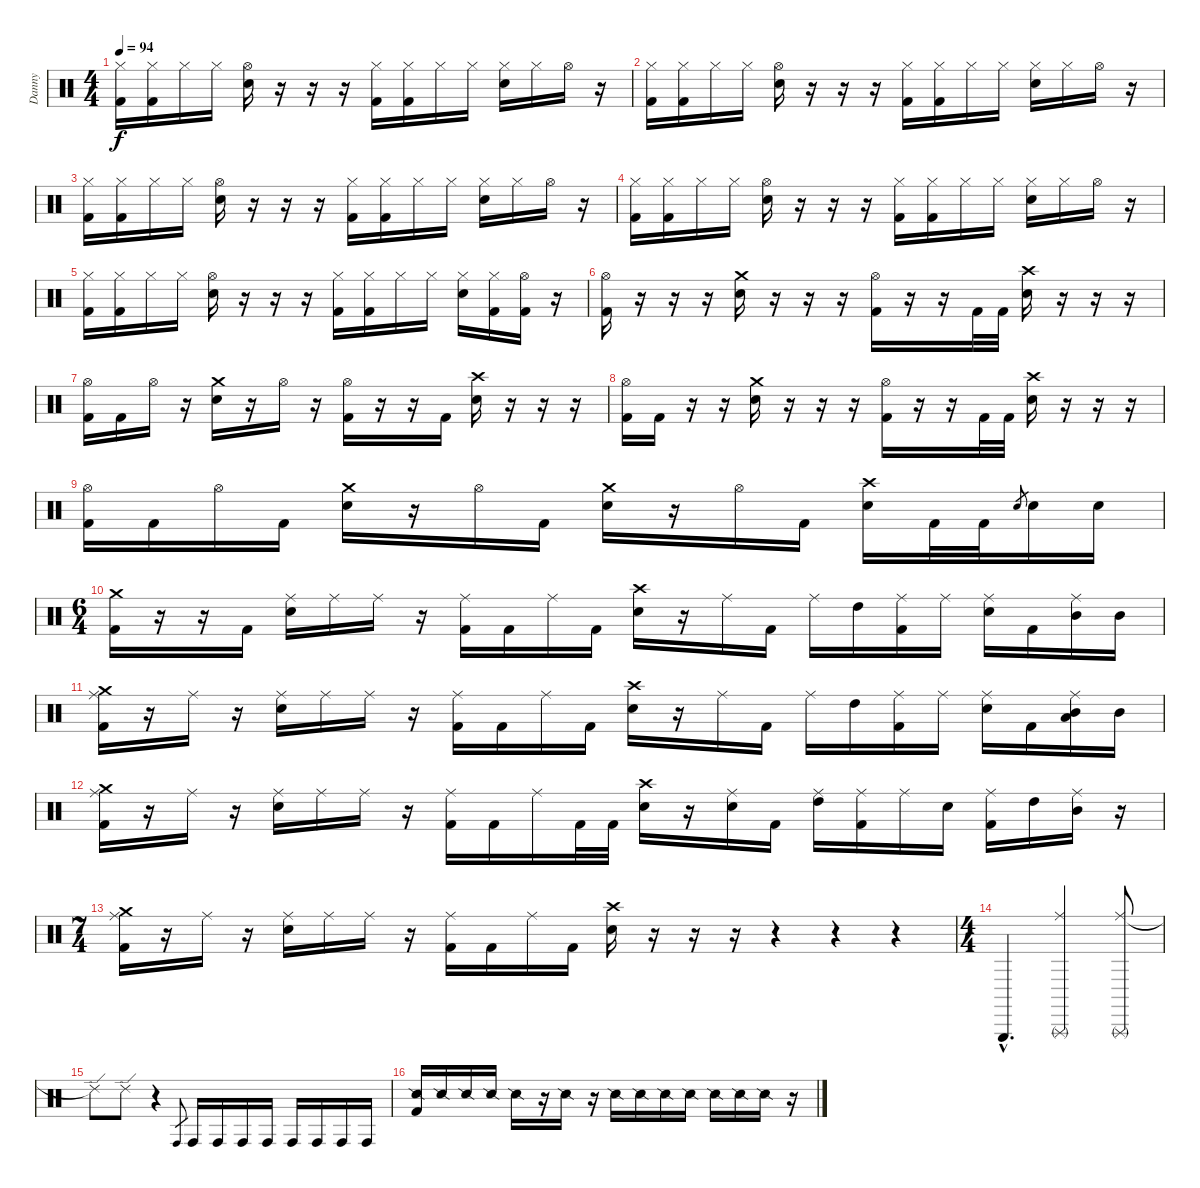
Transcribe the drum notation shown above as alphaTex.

\track ("Danny" "Danny") {instrument percussion}
\staff {score}
\articulation defaults
\ts (4 4)
\tempo 94
\clef neutral
\ks c
("Hi-Hat (closed)" "Kick (hit) 2").16{dy f} ("Hi-Hat (closed)" "Kick (hit) 2").16 "Hi-Hat (closed)".16 "Hi-Hat (closed)".16 ("Hi-Hat (open)" "Electric Snare (hit)").16 r.16 r.16 r.16 ("Hi-Hat (closed)" "Kick (hit) 2").16 ("Hi-Hat (closed)" "Kick (hit) 2").16 "Hi-Hat (closed)".16 "Hi-Hat (closed)".16 ("Hi-Hat (closed)" "Electric Snare (hit)").16 "Hi-Hat (closed)".16 "Hi-Hat (open)".16 r.16 |
("Hi-Hat (closed)" "Kick (hit) 2").16 ("Hi-Hat (closed)" "Kick (hit) 2").16 "Hi-Hat (closed)".16 "Hi-Hat (closed)".16 ("Hi-Hat (open)" "Electric Snare (hit)").16 r.16 r.16 r.16 ("Hi-Hat (closed)" "Kick (hit) 2").16 ("Hi-Hat (closed)" "Kick (hit) 2").16 "Hi-Hat (closed)".16 "Hi-Hat (closed)".16 ("Hi-Hat (closed)" "Electric Snare (hit)").16 "Hi-Hat (closed)".16 "Hi-Hat (open)".16 r.16 |
("Hi-Hat (closed)" "Kick (hit) 2").16 ("Hi-Hat (closed)" "Kick (hit) 2").16 "Hi-Hat (closed)".16 "Hi-Hat (closed)".16 ("Hi-Hat (open)" "Electric Snare (hit)").16 r.16 r.16 r.16 ("Hi-Hat (closed)" "Kick (hit) 2").16 ("Hi-Hat (closed)" "Kick (hit) 2").16 "Hi-Hat (closed)".16 "Hi-Hat (closed)".16 ("Hi-Hat (closed)" "Electric Snare (hit)").16 "Hi-Hat (closed)".16 "Hi-Hat (open)".16 r.16 |
("Hi-Hat (closed)" "Kick (hit) 2").16 ("Hi-Hat (closed)" "Kick (hit) 2").16 "Hi-Hat (closed)".16 "Hi-Hat (closed)".16 ("Hi-Hat (open)" "Electric Snare (hit)").16 r.16 r.16 r.16 ("Hi-Hat (closed)" "Kick (hit) 2").16 ("Hi-Hat (closed)" "Kick (hit) 2").16 "Hi-Hat (closed)".16 "Hi-Hat (closed)".16 ("Hi-Hat (closed)" "Electric Snare (hit)").16 "Hi-Hat (closed)".16 "Hi-Hat (open)".16 r.16 |
("Hi-Hat (closed)" "Kick (hit) 2").16 ("Hi-Hat (closed)" "Kick (hit) 2").16 "Hi-Hat (closed)".16 "Hi-Hat (closed)".16 ("Hi-Hat (open)" "Electric Snare (hit)").16 r.16 r.16 r.16 ("Hi-Hat (closed)" "Kick (hit) 2").16 ("Hi-Hat (closed)" "Kick (hit) 2").16 "Hi-Hat (closed)".16 "Hi-Hat (closed)".16 ("Hi-Hat (closed)" "Electric Snare (hit)").16 ("Hi-Hat (closed)" "Kick (hit) 2").16 ("Hi-Hat (open)" "Kick (hit) 2").16 r.16 |
("Hi-Hat (open)" "Kick (hit) 2").16 r.16 r.16 r.16 ("Crash medium (hit)" "Electric Snare (hit)").16 r.16 r.16 r.16 ("Hi-Hat (open)" "Kick (hit) 2").16 r.16 r.16 "Kick (hit) 2".32 "Kick (hit) 2".32 ("Crash high (hit)" "Electric Snare (hit)").16 r.16 r.16 r.16 |
("Hi-Hat (open)" "Kick (hit) 2").16 "Kick (hit) 2".16 "Hi-Hat (open)".16 r.16 ("Crash medium (hit)" "Electric Snare (hit)").16 r.16 "Hi-Hat (open)".16 r.16 ("Hi-Hat (open)" "Kick (hit) 2").16 r.16 r.16 "Kick (hit) 2".16 ("Crash high (hit)" "Electric Snare (hit)").16 r.16 r.16 r.16 |
("Hi-Hat (open)" "Kick (hit) 2").16 "Kick (hit) 2".16 r.16 r.16 ("Crash medium (hit)" "Electric Snare (hit)").16 r.16 r.16 r.16 ("Hi-Hat (open)" "Kick (hit) 2").16 r.16 r.16 "Kick (hit) 2".32 "Kick (hit) 2".32 ("Crash high (hit)" "Electric Snare (hit)").16 r.16 r.16 r.16 |
("Hi-Hat (open)" "Kick (hit) 2").16 "Kick (hit) 2".16 "Hi-Hat (open)".16 "Kick (hit) 2".16 ("Crash medium (hit)" "Electric Snare (hit)").16 r.16 "Hi-Hat (open)".16 "Kick (hit) 2".16 ("Crash medium (hit)" "Electric Snare (hit)").16 r.16 "Hi-Hat (open)".16 "Kick (hit) 2".16 ("Crash high (hit)" "Electric Snare (hit)").16 "Kick (hit) 2".32 "Kick (hit) 2".32 "Electric Snare (hit)".8{gr} "Electric Snare (hit)".16 "Electric Snare (hit)".16 |
\ts (6 4)
("Crash medium (hit)" "Kick (hit) 2").16 r.16 r.16 "Kick (hit) 2".16 ("Ride (middle)" "Electric Snare (hit)").16 "Ride (middle)".16 "Ride (middle)".16 r.16 ("Ride (middle)" "Kick (hit) 2").16 "Kick (hit) 2".16 "Ride (middle)".16 "Kick (hit) 2".16 ("Crash high (hit)" "Electric Snare (hit)").16 r.16 "Ride (middle)".16 "Kick (hit) 2".16 "Ride (middle)".16 "High Tom (hit)".16 ("Ride (middle)" "Kick (hit) 2").16 "Ride (middle)".16 ("Ride (middle)" "Electric Snare (hit)").16 "Kick (hit) 2".16 ("Ride (middle)" "Mid Tom (hit)").16 "Mid Tom (hit)".16 |
("Crash medium (hit)" "Ride (middle)" "Kick (hit) 2").16 r.16 "Ride (middle)".16 r.16 ("Ride (middle)" "Electric Snare (hit)").16 "Ride (middle)".16 "Ride (middle)".16 r.16 ("Ride (middle)" "Kick (hit) 2").16 "Kick (hit) 2".16 "Ride (middle)".16 "Kick (hit) 2".16 ("Crash high (hit)" "Electric Snare (hit)").16 r.16 "Ride (middle)".16 "Kick (hit) 2".16 "Ride (middle)".16 "High Tom (hit)".16 ("Ride (middle)" "Kick (hit) 2").16 "Ride (middle)".16 ("Ride (middle)" "Electric Snare (hit)").16 "Kick (hit) 2".16 ("Ride (middle)" "Low Floor Tom (hit)" "Mid Tom (hit)").16 "Mid Tom (hit)".16 |
("Crash medium (hit)" "Ride (middle)" "Kick (hit) 2").16 r.16 "Ride (middle)".16 r.16 ("Ride (middle)" "Electric Snare (hit)").16 "Ride (middle)".16 "Ride (middle)".16 r.16 ("Ride (middle)" "Kick (hit) 2").16 "Kick (hit) 2".16 "Ride (middle)".16 "Kick (hit) 2".32 "Kick (hit) 2".32 ("Crash high (hit)" "Electric Snare (hit)").16 r.16 ("Ride (middle)" "Electric Snare (hit)").16 "Kick (hit) 2".16 ("Ride (middle)" "High Tom (hit)").16 ("Ride (middle)" "Kick (hit) 2").16 "Ride (middle)".16 "Electric Snare (hit)".16 ("Ride (middle)" "Kick (hit) 2").16 "High Tom (hit)".16 ("Ride (middle)" "Mid Tom (hit)").16 r.16 |
\ts (7 4)
("Crash medium (hit)" "Ride (middle)" "Kick (hit) 2").16 r.16 "Ride (middle)".16 r.16 ("Ride (middle)" "Electric Snare (hit)").16 "Ride (middle)".16 "Ride (middle)".16 r.16 ("Ride (middle)" "Kick (hit) 2").16 "Kick (hit) 2".16 "Ride (middle)".16 "Kick (hit) 2".16 ("Crash high (hit)" "Electric Snare (hit)").16 r.16 r.16 r.16 r.4 r.4 r.4 |
\ts (4 4)
"Triangle (hit)"{hac}.4{d} ("Ride (middle)" "Triangle (rnute)").2 ("Ride (middle)" "Triangle (rnute)").8 |
"Ride (edge) 2"{t}.8 "Ride (edge) 2".8 r.4 "Conga high (hit)".8{gr} "Conga high (hit)".16 "Conga high (hit)".16 "Conga high (hit)".16 "Conga high (hit)".16 "Conga high (hit)".16 "Conga high (hit)".16 "Conga high (hit)".16 "Conga high (hit)".16 |
("Snare (side stick) 2" "Kick (hit) 2").16 "Snare (side stick) 2".16 "Snare (side stick) 2".16 "Snare (side stick) 2".16 "Snare (side stick) 2".16 r.16 "Snare (side stick) 2".16 r.16 "Snare (side stick) 2".16 "Snare (side stick) 2".16 "Snare (side stick) 2".16 "Snare (side stick) 2".16 "Snare (side stick) 2".16 "Snare (side stick) 2".16 "Snare (side stick) 2".16 r.16
